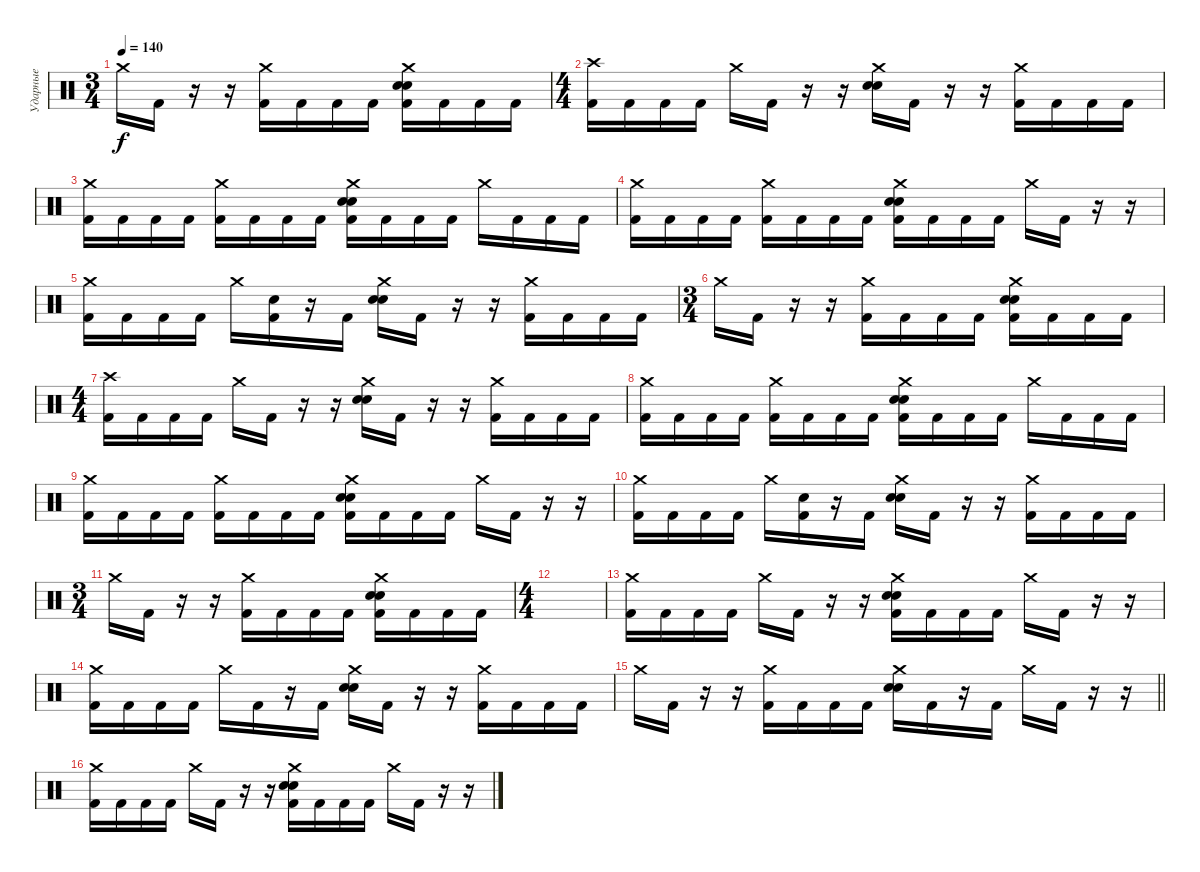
\track ("Ударные" "Ударные") {instrument percussion}
\staff {score}
\articulation defaults
\ts (3 4)
\tempo 140
\clef neutral
\ks c "Crash medium (hit)".16{dy f} "Kick (hit) 2".16
r.16 r.16 ("Crash medium (hit)" "Kick (hit) 2").16 "Kick (hit) 2".16 "Kick (hit) 2".16 "Kick (hit) 2".16 ("Crash medium (hit)" "Electric Snare (hit)" "Snare (hit) 2" "Kick (hit) 2").16 "Kick (hit) 2".16 "Kick (hit) 2".16 "Kick (hit) 2".16 |
\ts (4 4)
("Crash high (hit)" "Kick (hit) 2").16 "Kick (hit) 2".16 "Kick (hit) 2".16 "Kick (hit) 2".16 "Crash medium (hit)".16 "Kick (hit) 2".16 r.16 r.16 ("Crash medium (hit)" "Electric Snare (hit)" "Snare (hit) 2").16 "Kick (hit) 2".16 r.16 r.16 ("Crash medium (hit)" "Kick (hit) 2").16 "Kick (hit) 2".16 "Kick (hit) 2".16 "Kick (hit) 2".16 |
("Crash medium (hit)" "Kick (hit) 2").16 "Kick (hit) 2".16 "Kick (hit) 2".16 "Kick (hit) 2".16 ("Crash medium (hit)" "Kick (hit) 2").16 "Kick (hit) 2".16 "Kick (hit) 2".16 "Kick (hit) 2".16 ("Crash medium (hit)" "Electric Snare (hit)" "Snare (hit) 2" "Kick (hit) 2").16 "Kick (hit) 2".16 "Kick (hit) 2".16 "Kick (hit) 2".16 "Crash medium (hit)".16 "Kick (hit) 2".16 "Kick (hit) 2".16 "Kick (hit) 2".16 |
("Crash medium (hit)" "Kick (hit) 2").16 "Kick (hit) 2".16 "Kick (hit) 2".16 "Kick (hit) 2".16 ("Crash medium (hit)" "Kick (hit) 2").16 "Kick (hit) 2".16 "Kick (hit) 2".16 "Kick (hit) 2".16 ("Crash medium (hit)" "Electric Snare (hit)" "Snare (hit) 2" "Kick (hit) 2").16 "Kick (hit) 2".16 "Kick (hit) 2".16 "Kick (hit) 2".16 "Crash medium (hit)".16 "Kick (hit) 2".16 r.16 r.16 |
("Crash medium (hit)" "Kick (hit) 2").16 "Kick (hit) 2".16 "Kick (hit) 2".16 "Kick (hit) 2".16 "Crash medium (hit)".16 ("Snare (hit)" "Kick (hit) 2").16 r.16 "Kick (hit) 2".16 ("Crash medium (hit)" "Electric Snare (hit)" "Snare (hit) 2").16 "Kick (hit) 2".16 r.16 r.16 ("Crash medium (hit)" "Kick (hit) 2").16 "Kick (hit) 2".16 "Kick (hit) 2".16 "Kick (hit) 2".16 |
\ts (3 4)
"Crash medium (hit)".16 "Kick (hit) 2".16 r.16 r.16 ("Crash medium (hit)" "Kick (hit) 2").16 "Kick (hit) 2".16 "Kick (hit) 2".16 "Kick (hit) 2".16 ("Crash medium (hit)" "Electric Snare (hit)" "Snare (hit) 2" "Kick (hit) 2").16 "Kick (hit) 2".16 "Kick (hit) 2".16 "Kick (hit) 2".16 |
\ts (4 4)
("Crash high (hit)" "Kick (hit) 2").16 "Kick (hit) 2".16 "Kick (hit) 2".16 "Kick (hit) 2".16 "Crash medium (hit)".16 "Kick (hit) 2".16 r.16 r.16 ("Crash medium (hit)" "Electric Snare (hit)" "Snare (hit) 2").16 "Kick (hit) 2".16 r.16 r.16 ("Crash medium (hit)" "Kick (hit) 2").16 "Kick (hit) 2".16 "Kick (hit) 2".16 "Kick (hit) 2".16 |
("Crash medium (hit)" "Kick (hit) 2").16 "Kick (hit) 2".16 "Kick (hit) 2".16 "Kick (hit) 2".16 ("Crash medium (hit)" "Kick (hit) 2").16 "Kick (hit) 2".16 "Kick (hit) 2".16 "Kick (hit) 2".16 ("Crash medium (hit)" "Electric Snare (hit)" "Snare (hit) 2" "Kick (hit) 2").16 "Kick (hit) 2".16 "Kick (hit) 2".16 "Kick (hit) 2".16 "Crash medium (hit)".16 "Kick (hit) 2".16 "Kick (hit) 2".16 "Kick (hit) 2".16 |
("Crash medium (hit)" "Kick (hit) 2").16 "Kick (hit) 2".16 "Kick (hit) 2".16 "Kick (hit) 2".16 ("Crash medium (hit)" "Kick (hit) 2").16 "Kick (hit) 2".16 "Kick (hit) 2".16 "Kick (hit) 2".16 ("Crash medium (hit)" "Electric Snare (hit)" "Snare (hit) 2" "Kick (hit) 2").16 "Kick (hit) 2".16 "Kick (hit) 2".16 "Kick (hit) 2".16 "Crash medium (hit)".16 "Kick (hit) 2".16 r.16 r.16 |
("Crash medium (hit)" "Kick (hit) 2").16 "Kick (hit) 2".16 "Kick (hit) 2".16 "Kick (hit) 2".16 "Crash medium (hit)".16 ("Snare (hit)" "Kick (hit) 2").16 r.16 "Kick (hit) 2".16 ("Crash medium (hit)" "Electric Snare (hit)" "Snare (hit) 2").16 "Kick (hit) 2".16 r.16 r.16 ("Crash medium (hit)" "Kick (hit) 2").16 "Kick (hit) 2".16 "Kick (hit) 2".16 "Kick (hit) 2".16 |
\ts (3 4)
"Crash medium (hit)".16 "Kick (hit) 2".16 r.16 r.16 ("Crash medium (hit)" "Kick (hit) 2").16 "Kick (hit) 2".16 "Kick (hit) 2".16 "Kick (hit) 2".16 ("Crash medium (hit)" "Electric Snare (hit)" "Snare (hit) 2" "Kick (hit) 2").16 "Kick (hit) 2".16 "Kick (hit) 2".16 "Kick (hit) 2".16 |
\ts (4 4)
|
("Crash medium (hit)" "Kick (hit) 2").16 "Kick (hit) 2".16 "Kick (hit) 2".16 "Kick (hit) 2".16 "Crash medium (hit)".16 "Kick (hit) 2".16 r.16 r.16 ("Crash medium (hit)" "Snare (hit) 2" "Electric Snare (hit)" "Kick (hit) 2").16 "Kick (hit) 2".16 "Kick (hit) 2".16 "Kick (hit) 2".16 "Crash medium (hit)".16 "Kick (hit) 2".16 r.16 r.16 |
("Crash medium (hit)" "Kick (hit) 2").16 "Kick (hit) 2".16 "Kick (hit) 2".16 "Kick (hit) 2".16 "Crash medium (hit)".16 "Kick (hit) 2".16 r.16 "Kick (hit) 2".16 ("Crash medium (hit)" "Electric Snare (hit)" "Snare (hit) 2").16 "Kick (hit) 2".16 r.16 r.16 ("Crash medium (hit)" "Kick (hit) 2").16 "Kick (hit) 2".16 "Kick (hit) 2".16 "Kick (hit) 2".16 |
\barLineRight lightlight "Crash medium (hit)".16 "Kick (hit) 2".16
r.16 r.16 ("Crash medium (hit)" "Kick (hit) 2").16 "Kick (hit) 2".16 "Kick (hit) 2".16 "Kick (hit) 2".16 ("Crash medium (hit)" "Electric Snare (hit)" "Snare (hit) 2").16 "Kick (hit) 2".16 r.16 "Kick (hit) 2".16 "Crash medium (hit)".16 "Kick (hit) 2".16 r.16 r.16 |
("Crash medium (hit)" "Kick (hit) 2").16 "Kick (hit) 2".16 "Kick (hit) 2".16 "Kick (hit) 2".16 "Crash medium (hit)".16 "Kick (hit) 2".16 r.16 r.16 ("Crash medium (hit)" "Snare (hit) 2" "Electric Snare (hit)" "Kick (hit) 2").16 "Kick (hit) 2".16 "Kick (hit) 2".16 "Kick (hit) 2".16 "Crash medium (hit)".16 "Kick (hit) 2".16 r.16 r.16
